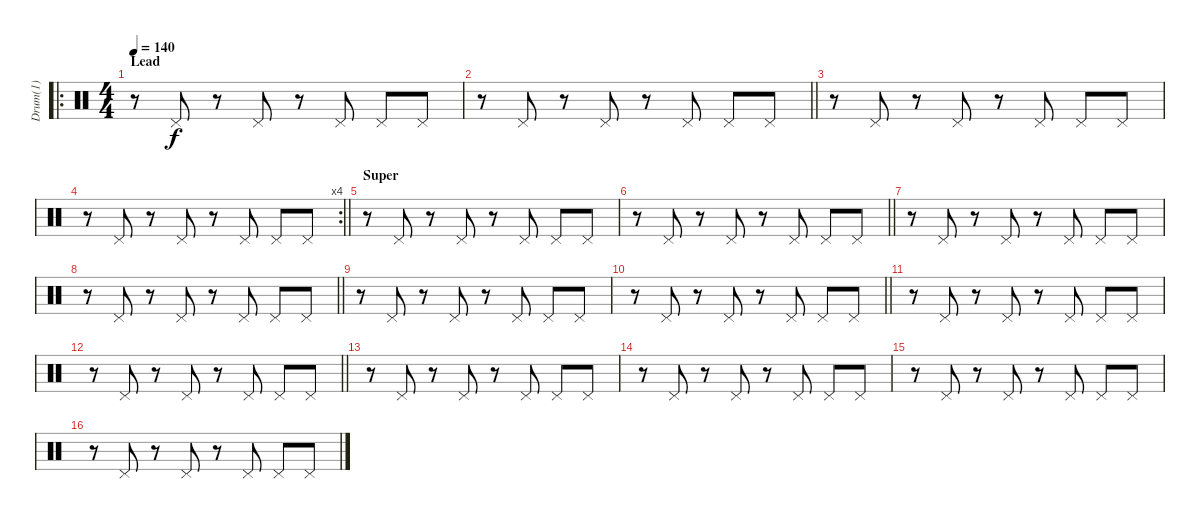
\track ("Drum(1)" "Drum(1)") {instrument percussion}
\staff {score}
\articulation defaults
\ro
\ts (4 4)
\section ("" "Lead")
\tempo 140
\clef neutral
\ks c
r.8{dy f} "Pedal Hi-Hat (hit)".8 r.8 "Pedal Hi-Hat (hit)".8 r.8 "Pedal Hi-Hat (hit)".8 "Pedal Hi-Hat (hit)".8 "Pedal Hi-Hat (hit)".8 |
\barLineRight lightlight
r.8 "Pedal Hi-Hat (hit)".8 r.8 "Pedal Hi-Hat (hit)".8 r.8 "Pedal Hi-Hat (hit)".8 "Pedal Hi-Hat (hit)".8 "Pedal Hi-Hat (hit)".8 |
r.8 "Pedal Hi-Hat (hit)".8 r.8 "Pedal Hi-Hat (hit)".8 r.8 "Pedal Hi-Hat (hit)".8 "Pedal Hi-Hat (hit)".8 "Pedal Hi-Hat (hit)".8 |
\rc 4
\barLineRight lightlight
r.8 "Pedal Hi-Hat (hit)".8 r.8 "Pedal Hi-Hat (hit)".8 r.8 "Pedal Hi-Hat (hit)".8 "Pedal Hi-Hat (hit)".8 "Pedal Hi-Hat (hit)".8 |
\section ("" "Super")
r.8 "Pedal Hi-Hat (hit)".8 r.8 "Pedal Hi-Hat (hit)".8 r.8 "Pedal Hi-Hat (hit)".8 "Pedal Hi-Hat (hit)".8 "Pedal Hi-Hat (hit)".8 |
\barLineRight lightlight
r.8 "Pedal Hi-Hat (hit)".8 r.8 "Pedal Hi-Hat (hit)".8 r.8 "Pedal Hi-Hat (hit)".8 "Pedal Hi-Hat (hit)".8 "Pedal Hi-Hat (hit)".8 |
r.8 "Pedal Hi-Hat (hit)".8 r.8 "Pedal Hi-Hat (hit)".8 r.8 "Pedal Hi-Hat (hit)".8 "Pedal Hi-Hat (hit)".8 "Pedal Hi-Hat (hit)".8 |
\barLineRight lightlight
r.8 "Pedal Hi-Hat (hit)".8 r.8 "Pedal Hi-Hat (hit)".8 r.8 "Pedal Hi-Hat (hit)".8 "Pedal Hi-Hat (hit)".8 "Pedal Hi-Hat (hit)".8 |
r.8 "Pedal Hi-Hat (hit)".8 r.8 "Pedal Hi-Hat (hit)".8 r.8 "Pedal Hi-Hat (hit)".8 "Pedal Hi-Hat (hit)".8 "Pedal Hi-Hat (hit)".8 |
\barLineRight lightlight
r.8 "Pedal Hi-Hat (hit)".8 r.8 "Pedal Hi-Hat (hit)".8 r.8 "Pedal Hi-Hat (hit)".8 "Pedal Hi-Hat (hit)".8 "Pedal Hi-Hat (hit)".8 |
r.8 "Pedal Hi-Hat (hit)".8 r.8 "Pedal Hi-Hat (hit)".8 r.8 "Pedal Hi-Hat (hit)".8 "Pedal Hi-Hat (hit)".8 "Pedal Hi-Hat (hit)".8 |
\barLineRight lightlight
r.8 "Pedal Hi-Hat (hit)".8 r.8 "Pedal Hi-Hat (hit)".8 r.8 "Pedal Hi-Hat (hit)".8 "Pedal Hi-Hat (hit)".8 "Pedal Hi-Hat (hit)".8 |
r.8 "Pedal Hi-Hat (hit)".8 r.8 "Pedal Hi-Hat (hit)".8 r.8 "Pedal Hi-Hat (hit)".8 "Pedal Hi-Hat (hit)".8 "Pedal Hi-Hat (hit)".8 |
r.8 "Pedal Hi-Hat (hit)".8 r.8 "Pedal Hi-Hat (hit)".8 r.8 "Pedal Hi-Hat (hit)".8 "Pedal Hi-Hat (hit)".8 "Pedal Hi-Hat (hit)".8 |
r.8 "Pedal Hi-Hat (hit)".8 r.8 "Pedal Hi-Hat (hit)".8 r.8 "Pedal Hi-Hat (hit)".8 "Pedal Hi-Hat (hit)".8 "Pedal Hi-Hat (hit)".8 |
r.8 "Pedal Hi-Hat (hit)".8 r.8 "Pedal Hi-Hat (hit)".8 r.8 "Pedal Hi-Hat (hit)".8 "Pedal Hi-Hat (hit)".8 "Pedal Hi-Hat (hit)".8
